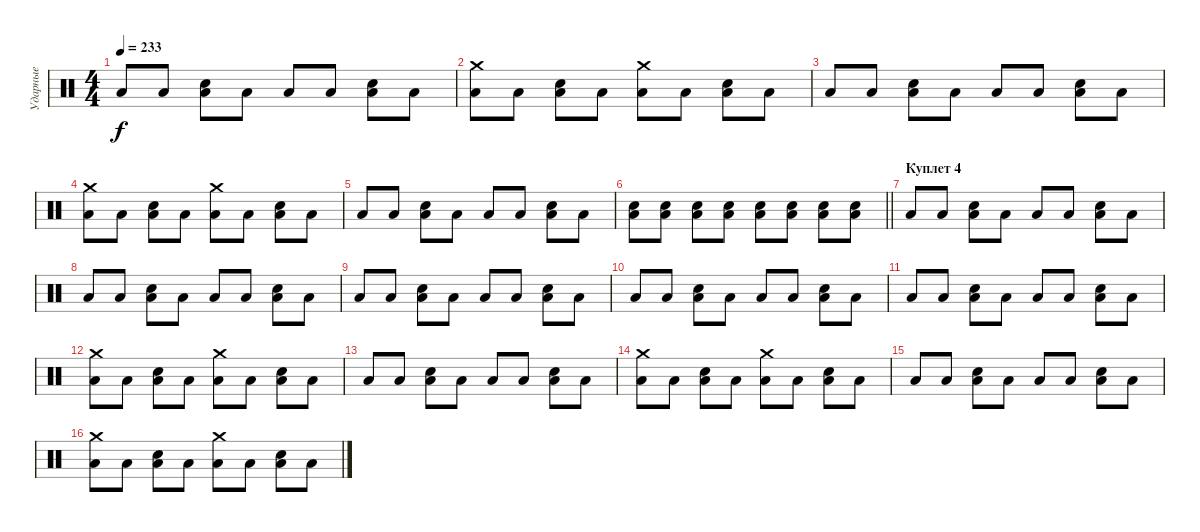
\track ("Ударные" "Ударные") {instrument percussion}
\staff {score}
\articulation defaults
\ts (4 4)
\tempo 233
\clef neutral
\ks c "Low Tom (hit)".8{dy f} "Low Tom (hit)".8
("Electric Snare (hit)" "Low Tom (hit)").8 "Low Tom (hit)".8 "Low Tom (hit)".8 "Low Tom (hit)".8 ("Electric Snare (hit)" "Low Tom (hit)").8 "Low Tom (hit)".8 |
("Crash medium (hit)" "Low Tom (hit)").8 "Low Tom (hit)".8 ("Electric Snare (hit)" "Low Tom (hit)").8 "Low Tom (hit)".8 ("Crash medium (hit)" "Low Tom (hit)").8 "Low Tom (hit)".8 ("Electric Snare (hit)" "Low Tom (hit)").8 "Low Tom (hit)".8 |
"Low Tom (hit)".8 "Low Tom (hit)".8 ("Electric Snare (hit)" "Low Tom (hit)").8 "Low Tom (hit)".8 "Low Tom (hit)".8 "Low Tom (hit)".8 ("Electric Snare (hit)" "Low Tom (hit)").8 "Low Tom (hit)".8 |
("Crash medium (hit)" "Low Tom (hit)").8 "Low Tom (hit)".8 ("Electric Snare (hit)" "Low Tom (hit)").8 "Low Tom (hit)".8 ("Crash medium (hit)" "Low Tom (hit)").8 "Low Tom (hit)".8 ("Electric Snare (hit)" "Low Tom (hit)").8 "Low Tom (hit)".8 |
"Low Tom (hit)".8 "Low Tom (hit)".8 ("Electric Snare (hit)" "Low Tom (hit)").8 "Low Tom (hit)".8 "Low Tom (hit)".8 "Low Tom (hit)".8 ("Electric Snare (hit)" "Low Tom (hit)").8 "Low Tom (hit)".8 |
\barLineRight lightlight
("Electric Snare (hit)" "Low Tom (hit)").8 ("Electric Snare (hit)" "Low Tom (hit)").8 ("Electric Snare (hit)" "Low Tom (hit)").8 ("Electric Snare (hit)" "Low Tom (hit)").8 ("Electric Snare (hit)" "Low Tom (hit)").8 ("Electric Snare (hit)" "Low Tom (hit)").8 ("Electric Snare (hit)" "Low Tom (hit)").8 ("Electric Snare (hit)" "Low Tom (hit)").8 |
\section ("" "Куплет 4")
"Low Tom (hit)".8 "Low Tom (hit)".8 ("Electric Snare (hit)" "Low Tom (hit)").8 "Low Tom (hit)".8 "Low Tom (hit)".8 "Low Tom (hit)".8 ("Electric Snare (hit)" "Low Tom (hit)").8 "Low Tom (hit)".8 |
"Low Tom (hit)".8 "Low Tom (hit)".8 ("Electric Snare (hit)" "Low Tom (hit)").8 "Low Tom (hit)".8 "Low Tom (hit)".8 "Low Tom (hit)".8 ("Electric Snare (hit)" "Low Tom (hit)").8 "Low Tom (hit)".8 |
"Low Tom (hit)".8 "Low Tom (hit)".8 ("Electric Snare (hit)" "Low Tom (hit)").8 "Low Tom (hit)".8 "Low Tom (hit)".8 "Low Tom (hit)".8 ("Electric Snare (hit)" "Low Tom (hit)").8 "Low Tom (hit)".8 |
"Low Tom (hit)".8 "Low Tom (hit)".8 ("Electric Snare (hit)" "Low Tom (hit)").8 "Low Tom (hit)".8 "Low Tom (hit)".8 "Low Tom (hit)".8 ("Electric Snare (hit)" "Low Tom (hit)").8 "Low Tom (hit)".8 |
"Low Tom (hit)".8 "Low Tom (hit)".8 ("Electric Snare (hit)" "Low Tom (hit)").8 "Low Tom (hit)".8 "Low Tom (hit)".8 "Low Tom (hit)".8 ("Electric Snare (hit)" "Low Tom (hit)").8 "Low Tom (hit)".8 |
("Crash medium (hit)" "Low Tom (hit)").8 "Low Tom (hit)".8 ("Electric Snare (hit)" "Low Tom (hit)").8 "Low Tom (hit)".8 ("Crash medium (hit)" "Low Tom (hit)").8 "Low Tom (hit)".8 ("Electric Snare (hit)" "Low Tom (hit)").8 "Low Tom (hit)".8 |
"Low Tom (hit)".8 "Low Tom (hit)".8 ("Electric Snare (hit)" "Low Tom (hit)").8 "Low Tom (hit)".8 "Low Tom (hit)".8 "Low Tom (hit)".8 ("Electric Snare (hit)" "Low Tom (hit)").8 "Low Tom (hit)".8 |
("Crash medium (hit)" "Low Tom (hit)").8 "Low Tom (hit)".8 ("Electric Snare (hit)" "Low Tom (hit)").8 "Low Tom (hit)".8 ("Crash medium (hit)" "Low Tom (hit)").8 "Low Tom (hit)".8 ("Electric Snare (hit)" "Low Tom (hit)").8 "Low Tom (hit)".8 |
"Low Tom (hit)".8 "Low Tom (hit)".8 ("Electric Snare (hit)" "Low Tom (hit)").8 "Low Tom (hit)".8 "Low Tom (hit)".8 "Low Tom (hit)".8 ("Electric Snare (hit)" "Low Tom (hit)").8 "Low Tom (hit)".8 |
("Crash medium (hit)" "Low Tom (hit)").8 "Low Tom (hit)".8 ("Electric Snare (hit)" "Low Tom (hit)").8 "Low Tom (hit)".8 ("Crash medium (hit)" "Low Tom (hit)").8 "Low Tom (hit)".8 ("Electric Snare (hit)" "Low Tom (hit)").8 "Low Tom (hit)".8
